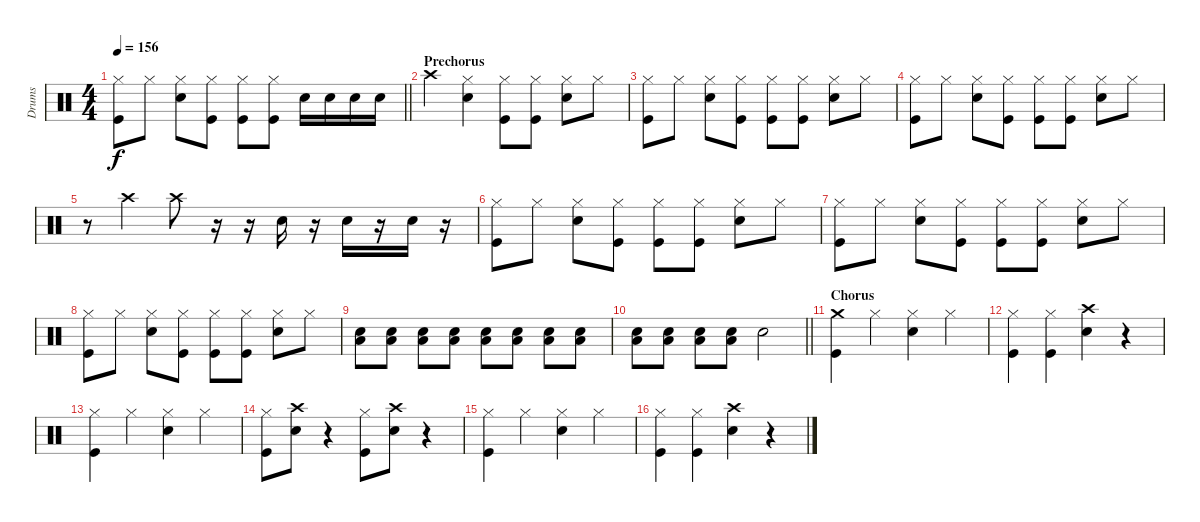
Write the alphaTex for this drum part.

\track ("Drums" "Drums") {instrument percussion}
\staff {score}
\articulation defaults
\ts (4 4)
\tempo 156
\clef neutral
\barLineRight lightlight
\ks c
("Hi-Hat (closed)" "Kick (hit)").8{dy f} "Hi-Hat (closed)".8 ("Hi-Hat (closed)" "Snare (hit) 2").8 ("Hi-Hat (closed)" "Kick (hit)").8 ("Hi-Hat (closed)" "Kick (hit)").8 ("Hi-Hat (closed)" "Kick (hit)").8 "Snare (hit) 2".16 "Snare (hit) 2".16 "Snare (hit) 2".16 "Snare (hit) 2".16 |
\section ("" "Prechorus")
"Crash high (hit)".4 ("Hi-Hat (closed)" "Snare (hit) 2").4 ("Hi-Hat (closed)" "Kick (hit)").8 ("Hi-Hat (closed)" "Kick (hit)").8 ("Hi-Hat (closed)" "Snare (hit) 2").8 "Hi-Hat (closed)".8 |
("Hi-Hat (closed)" "Kick (hit)").8 "Hi-Hat (closed)".8 ("Hi-Hat (closed)" "Snare (hit) 2").8 ("Hi-Hat (closed)" "Kick (hit)").8 ("Hi-Hat (closed)" "Kick (hit)").8 ("Hi-Hat (closed)" "Kick (hit)").8 ("Hi-Hat (closed)" "Snare (hit) 2").8 "Hi-Hat (closed)".8 |
("Hi-Hat (closed)" "Kick (hit)").8 "Hi-Hat (closed)".8 ("Hi-Hat (closed)" "Snare (hit) 2").8 ("Hi-Hat (closed)" "Kick (hit)").8 ("Hi-Hat (closed)" "Kick (hit)").8 ("Hi-Hat (closed)" "Kick (hit)").8 ("Hi-Hat (closed)" "Snare (hit) 2").8 "Hi-Hat (closed)".8 |
r.8 "Crash high (hit)".4 "Crash high (hit)".8 r.16 r.16 "Snare (hit) 2".16 r.16 "Snare (hit) 2".16 r.16 "Snare (hit) 2".16 r.16 |
("Hi-Hat (closed)" "Kick (hit)").8 "Hi-Hat (closed)".8 ("Hi-Hat (closed)" "Snare (hit) 2").8 ("Hi-Hat (closed)" "Kick (hit)").8 ("Hi-Hat (closed)" "Kick (hit)").8 ("Hi-Hat (closed)" "Kick (hit)").8 ("Hi-Hat (closed)" "Snare (hit) 2").8 "Hi-Hat (closed)".8 |
("Hi-Hat (closed)" "Kick (hit)").8 "Hi-Hat (closed)".8 ("Hi-Hat (closed)" "Snare (hit) 2").8 ("Hi-Hat (closed)" "Kick (hit)").8 ("Hi-Hat (closed)" "Kick (hit)").8 ("Hi-Hat (closed)" "Kick (hit)").8 ("Hi-Hat (closed)" "Snare (hit) 2").8 "Hi-Hat (closed)".8 |
("Hi-Hat (closed)" "Kick (hit)").8 "Hi-Hat (closed)".8 ("Hi-Hat (closed)" "Snare (hit) 2").8 ("Hi-Hat (closed)" "Kick (hit)").8 ("Hi-Hat (closed)" "Kick (hit)").8 ("Hi-Hat (closed)" "Kick (hit)").8 ("Hi-Hat (closed)" "Snare (hit) 2").8 "Hi-Hat (closed)".8 |
("Low Tom (hit)" "Snare (hit) 2").8 ("Low Tom (hit)" "Snare (hit) 2").8 ("Low Tom (hit)" "Snare (hit) 2").8 ("Low Tom (hit)" "Snare (hit) 2").8 ("Low Tom (hit)" "Snare (hit) 2").8 ("Low Tom (hit)" "Snare (hit) 2").8 ("Low Tom (hit)" "Snare (hit) 2").8 ("Low Tom (hit)" "Snare (hit) 2").8 |
\barLineRight lightlight
("Low Tom (hit)" "Snare (hit) 2").8 ("Low Tom (hit)" "Snare (hit) 2").8 ("Low Tom (hit)" "Snare (hit) 2").8 ("Low Tom (hit)" "Snare (hit) 2").8 "Snare (hit) 2".2 |
\section ("" "Chorus")
("Crash medium (hit)" "Kick (hit)").4 "Hi-Hat (closed)".4 ("Hi-Hat (closed)" "Snare (hit) 2").4 "Hi-Hat (closed)".4 |
("Hi-Hat (closed)" "Kick (hit)").4 ("Hi-Hat (closed)" "Kick (hit)").4 ("Crash high (hit)" "Snare (hit) 2").4 r.4 |
("Hi-Hat (closed)" "Kick (hit)").4 "Hi-Hat (closed)".4 ("Hi-Hat (closed)" "Snare (hit) 2").4 "Hi-Hat (closed)".4 |
("Hi-Hat (closed)" "Kick (hit)").8 ("Crash high (hit)" "Snare (hit) 2").8 r.4 ("Hi-Hat (closed)" "Kick (hit)").8 ("Crash high (hit)" "Snare (hit) 2").8 r.4 |
("Hi-Hat (closed)" "Kick (hit)").4 "Hi-Hat (closed)".4 ("Hi-Hat (closed)" "Snare (hit) 2").4 "Hi-Hat (closed)".4 |
("Hi-Hat (closed)" "Kick (hit)").4 ("Hi-Hat (closed)" "Kick (hit)").4 ("Crash high (hit)" "Snare (hit) 2").4 r.4
